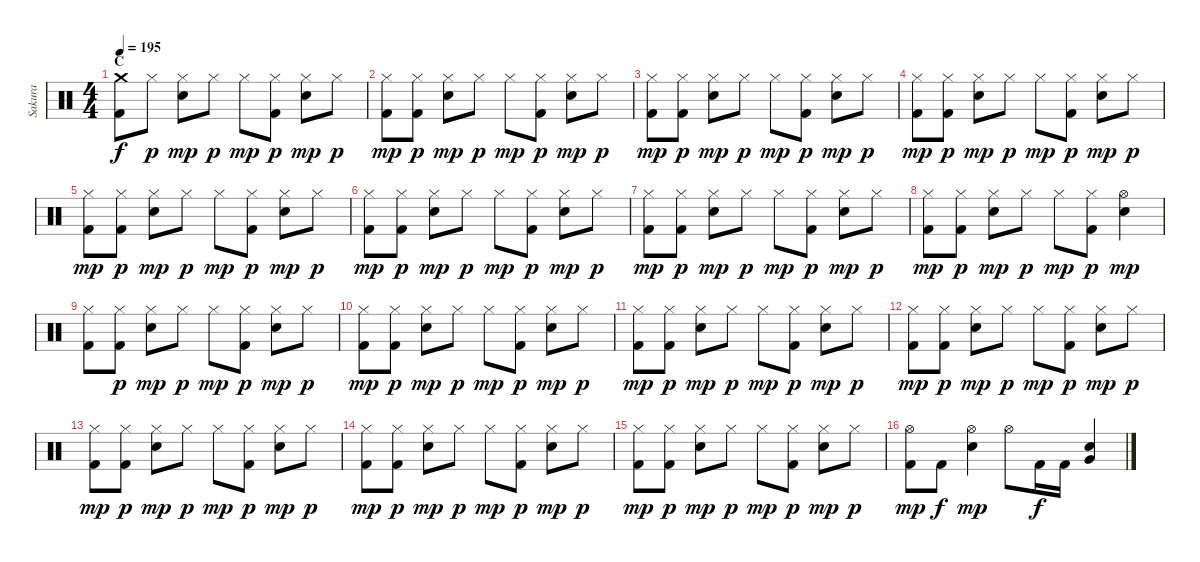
\track ("Sakura" "Sakura") {instrument percussion}
\staff {score}
\articulation defaults
\ts (4 4)
\section ("" "C")
\tempo 195
\clef neutral
\ks c
("Crash medium (hit)" "Kick (hit) 2").8{dy f} "Hi-Hat (closed)".8{dy p} ("Hi-Hat (closed)" "Snare (hit) 2").8{dy mp} "Hi-Hat (closed)".8{dy p} "Hi-Hat (closed)".8{dy mp} ("Hi-Hat (closed)" "Kick (hit) 2").8{dy p} ("Hi-Hat (closed)" "Snare (hit) 2").8{dy mp} "Hi-Hat (closed)".8{dy p} |
("Hi-Hat (closed)" "Kick (hit) 2").8{dy mp} ("Hi-Hat (closed)" "Kick (hit) 2").8{dy p} ("Hi-Hat (closed)" "Snare (hit) 2").8{dy mp} "Hi-Hat (closed)".8{dy p} "Hi-Hat (closed)".8{dy mp} ("Hi-Hat (closed)" "Kick (hit) 2").8{dy p} ("Hi-Hat (closed)" "Snare (hit) 2").8{dy mp} "Hi-Hat (closed)".8{dy p} |
("Hi-Hat (closed)" "Kick (hit) 2").8{dy mp} ("Hi-Hat (closed)" "Kick (hit) 2").8{dy p} ("Hi-Hat (closed)" "Snare (hit) 2").8{dy mp} "Hi-Hat (closed)".8{dy p} "Hi-Hat (closed)".8{dy mp} ("Hi-Hat (closed)" "Kick (hit) 2").8{dy p} ("Hi-Hat (closed)" "Snare (hit) 2").8{dy mp} "Hi-Hat (closed)".8{dy p} |
("Hi-Hat (closed)" "Kick (hit) 2").8{dy mp} ("Hi-Hat (closed)" "Kick (hit) 2").8{dy p} ("Hi-Hat (closed)" "Snare (hit) 2").8{dy mp} "Hi-Hat (closed)".8{dy p} "Hi-Hat (closed)".8{dy mp} ("Hi-Hat (closed)" "Kick (hit) 2").8{dy p} ("Hi-Hat (closed)" "Snare (hit) 2").8{dy mp} "Hi-Hat (closed)".8{dy p} |
("Hi-Hat (closed)" "Kick (hit) 2").8{dy mp} ("Hi-Hat (closed)" "Kick (hit) 2").8{dy p} ("Hi-Hat (closed)" "Snare (hit) 2").8{dy mp} "Hi-Hat (closed)".8{dy p} "Hi-Hat (closed)".8{dy mp} ("Hi-Hat (closed)" "Kick (hit) 2").8{dy p} ("Hi-Hat (closed)" "Snare (hit) 2").8{dy mp} "Hi-Hat (closed)".8{dy p} |
("Hi-Hat (closed)" "Kick (hit) 2").8{dy mp} ("Hi-Hat (closed)" "Kick (hit) 2").8{dy p} ("Hi-Hat (closed)" "Snare (hit) 2").8{dy mp} "Hi-Hat (closed)".8{dy p} "Hi-Hat (closed)".8{dy mp} ("Hi-Hat (closed)" "Kick (hit) 2").8{dy p} ("Hi-Hat (closed)" "Snare (hit) 2").8{dy mp} "Hi-Hat (closed)".8{dy p} |
("Hi-Hat (closed)" "Kick (hit) 2").8{dy mp} ("Hi-Hat (closed)" "Kick (hit) 2").8{dy p} ("Hi-Hat (closed)" "Snare (hit) 2").8{dy mp} "Hi-Hat (closed)".8{dy p} "Hi-Hat (closed)".8{dy mp} ("Hi-Hat (closed)" "Kick (hit) 2").8{dy p} ("Hi-Hat (closed)" "Snare (hit) 2").8{dy mp} "Hi-Hat (closed)".8{dy p} |
("Hi-Hat (closed)" "Kick (hit) 2").8{dy mp} ("Hi-Hat (closed)" "Kick (hit) 2").8{dy p} ("Hi-Hat (closed)" "Snare (hit) 2").8{dy mp} "Hi-Hat (closed)".8{dy p} "Hi-Hat (closed)".8{dy mp} ("Hi-Hat (closed)" "Kick (hit) 2").8{dy p} ("Hi-Hat (open)" "Snare (hit) 2").4{dy mp} |
("Hi-Hat (closed)" "Kick (hit) 2").8 ("Hi-Hat (closed)" "Kick (hit) 2").8{dy p} ("Hi-Hat (closed)" "Snare (hit) 2").8{dy mp} "Hi-Hat (closed)".8{dy p} "Hi-Hat (closed)".8{dy mp} ("Hi-Hat (closed)" "Kick (hit) 2").8{dy p} ("Hi-Hat (closed)" "Snare (hit) 2").8{dy mp} "Hi-Hat (closed)".8{dy p} |
("Hi-Hat (closed)" "Kick (hit) 2").8{dy mp} ("Hi-Hat (closed)" "Kick (hit) 2").8{dy p} ("Hi-Hat (closed)" "Snare (hit) 2").8{dy mp} "Hi-Hat (closed)".8{dy p} "Hi-Hat (closed)".8{dy mp} ("Hi-Hat (closed)" "Kick (hit) 2").8{dy p} ("Hi-Hat (closed)" "Snare (hit) 2").8{dy mp} "Hi-Hat (closed)".8{dy p} |
("Hi-Hat (closed)" "Kick (hit) 2").8{dy mp} ("Hi-Hat (closed)" "Kick (hit) 2").8{dy p} ("Hi-Hat (closed)" "Snare (hit) 2").8{dy mp} "Hi-Hat (closed)".8{dy p} "Hi-Hat (closed)".8{dy mp} ("Hi-Hat (closed)" "Kick (hit) 2").8{dy p} ("Hi-Hat (closed)" "Snare (hit) 2").8{dy mp} "Hi-Hat (closed)".8{dy p} |
("Hi-Hat (closed)" "Kick (hit) 2").8{dy mp} ("Hi-Hat (closed)" "Kick (hit) 2").8{dy p} ("Hi-Hat (closed)" "Snare (hit) 2").8{dy mp} "Hi-Hat (closed)".8{dy p} "Hi-Hat (closed)".8{dy mp} ("Hi-Hat (closed)" "Kick (hit) 2").8{dy p} ("Hi-Hat (closed)" "Snare (hit) 2").8{dy mp} "Hi-Hat (closed)".8{dy p} |
("Hi-Hat (closed)" "Kick (hit) 2").8{dy mp} ("Hi-Hat (closed)" "Kick (hit) 2").8{dy p} ("Hi-Hat (closed)" "Snare (hit) 2").8{dy mp} "Hi-Hat (closed)".8{dy p} "Hi-Hat (closed)".8{dy mp} ("Hi-Hat (closed)" "Kick (hit) 2").8{dy p} ("Hi-Hat (closed)" "Snare (hit) 2").8{dy mp} "Hi-Hat (closed)".8{dy p} |
("Hi-Hat (closed)" "Kick (hit) 2").8{dy mp} ("Hi-Hat (closed)" "Kick (hit) 2").8{dy p} ("Hi-Hat (closed)" "Snare (hit) 2").8{dy mp} "Hi-Hat (closed)".8{dy p} "Hi-Hat (closed)".8{dy mp} ("Hi-Hat (closed)" "Kick (hit) 2").8{dy p} ("Hi-Hat (closed)" "Snare (hit) 2").8{dy mp} "Hi-Hat (closed)".8{dy p} |
("Hi-Hat (closed)" "Kick (hit) 2").8{dy mp} ("Hi-Hat (closed)" "Kick (hit) 2").8{dy p} ("Hi-Hat (closed)" "Snare (hit) 2").8{dy mp} "Hi-Hat (closed)".8{dy p} "Hi-Hat (closed)".8{dy mp} ("Hi-Hat (closed)" "Kick (hit) 2").8{dy p} ("Hi-Hat (closed)" "Snare (hit) 2").8{dy mp} "Hi-Hat (closed)".8{dy p} |
("Hi-Hat (open)" "Kick (hit) 2").8{dy mp} "Kick (hit) 2".8{dy f} ("Hi-Hat (open)" "Snare (hit) 2").4{dy mp} "Hi-Hat (open)".8 "Kick (hit) 2".16{dy f} "Kick (hit) 2".16 ("Snare (hit) 2" "Very Low Tom (hit)").4
